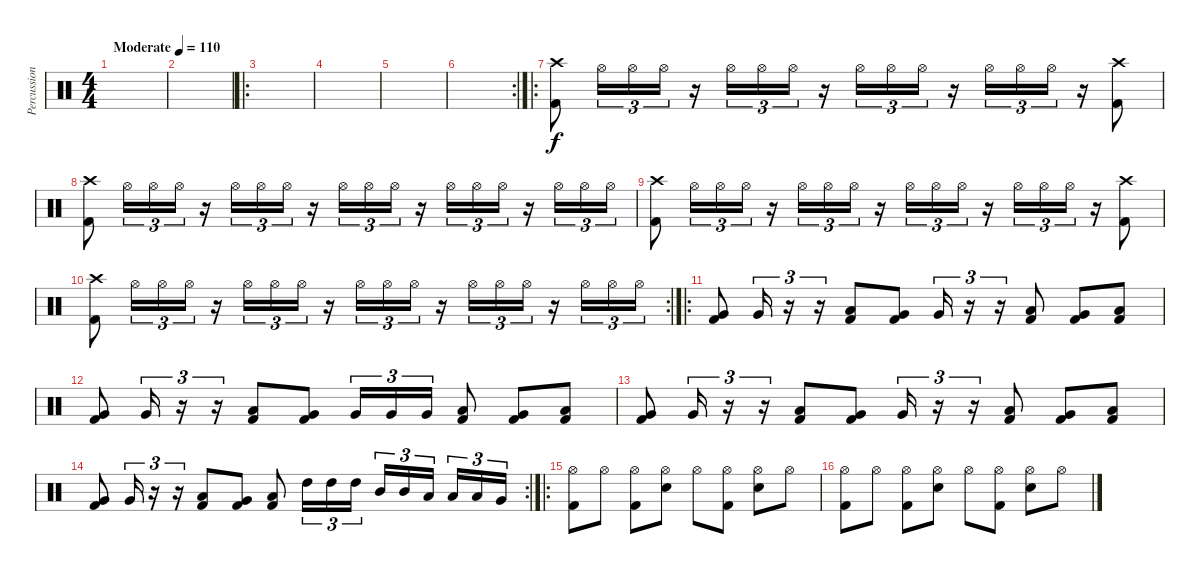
\track ("Percussion" "Percussion") {instrument percussion}
\staff {score}
\articulation defaults
\ts (4 4)
\tempo (110 "Moderate")
\clef neutral
\ks c
|
|
\ro
|
|
|
\rc 2
|
\ro
("Crash high (hit)" "Kick (hit) 2").8 "Hi-Hat (open)".16{tu (3 2)} "Hi-Hat (open)".16{tu (3 2)} "Hi-Hat (open)".16{tu (3 2)} r.16 "Hi-Hat (open)".16{tu (3 2)} "Hi-Hat (open)".16{tu (3 2)} "Hi-Hat (open)".16{tu (3 2)} r.16 "Hi-Hat (open)".16{tu (3 2)} "Hi-Hat (open)".16{tu (3 2)} "Hi-Hat (open)".16{tu (3 2)} r.16 "Hi-Hat (open)".16{tu (3 2)} "Hi-Hat (open)".16{tu (3 2)} "Hi-Hat (open)".16{tu (3 2)} r.16 ("Crash high (hit)" "Kick (hit) 2").8 |
("Crash high (hit)" "Kick (hit) 2").8 "Hi-Hat (open)".16{tu (3 2)} "Hi-Hat (open)".16{tu (3 2)} "Hi-Hat (open)".16{tu (3 2)} r.16 "Hi-Hat (open)".16{tu (3 2)} "Hi-Hat (open)".16{tu (3 2)} "Hi-Hat (open)".16{tu (3 2)} r.16 "Hi-Hat (open)".16{tu (3 2)} "Hi-Hat (open)".16{tu (3 2)} "Hi-Hat (open)".16{tu (3 2)} r.16 "Hi-Hat (open)".16{tu (3 2)} "Hi-Hat (open)".16{tu (3 2)} "Hi-Hat (open)".16{tu (3 2)} r.16 "Hi-Hat (open)".16{tu (3 2)} "Hi-Hat (open)".16{tu (3 2)} "Hi-Hat (open)".16{tu (3 2)} |
("Crash high (hit)" "Kick (hit) 2").8 "Hi-Hat (open)".16{tu (3 2)} "Hi-Hat (open)".16{tu (3 2)} "Hi-Hat (open)".16{tu (3 2)} r.16 "Hi-Hat (open)".16{tu (3 2)} "Hi-Hat (open)".16{tu (3 2)} "Hi-Hat (open)".16{tu (3 2)} r.16 "Hi-Hat (open)".16{tu (3 2)} "Hi-Hat (open)".16{tu (3 2)} "Hi-Hat (open)".16{tu (3 2)} r.16 "Hi-Hat (open)".16{tu (3 2)} "Hi-Hat (open)".16{tu (3 2)} "Hi-Hat (open)".16{tu (3 2)} r.16 ("Crash high (hit)" "Kick (hit) 2").8 |
\rc 2
("Crash high (hit)" "Kick (hit) 2").8 "Hi-Hat (open)".16{tu (3 2)} "Hi-Hat (open)".16{tu (3 2)} "Hi-Hat (open)".16{tu (3 2)} r.16 "Hi-Hat (open)".16{tu (3 2)} "Hi-Hat (open)".16{tu (3 2)} "Hi-Hat (open)".16{tu (3 2)} r.16 "Hi-Hat (open)".16{tu (3 2)} "Hi-Hat (open)".16{tu (3 2)} "Hi-Hat (open)".16{tu (3 2)} r.16 "Hi-Hat (open)".16{tu (3 2)} "Hi-Hat (open)".16{tu (3 2)} "Hi-Hat (open)".16{tu (3 2)} r.16 "Hi-Hat (open)".16{tu (3 2)} "Hi-Hat (open)".16{tu (3 2)} "Hi-Hat (open)".16{tu (3 2)} |
\ro
("Kick (hit) 2" "Very Low Tom (hit)").8 "Very Low Tom (hit)".16{tu (3 2)} r.16{tu (3 2)} r.16{tu (3 2)} ("Kick (hit) 2" "Low Tom (hit)").8 ("Kick (hit) 2" "Very Low Tom (hit)").8 "Very Low Tom (hit)".16{tu (3 2)} r.16{tu (3 2)} r.16{tu (3 2)} ("Kick (hit) 2" "Low Tom (hit)").8 ("Kick (hit) 2" "Very Low Tom (hit)").8 ("Kick (hit) 2" "Low Floor Tom (hit)").8 |
("Kick (hit) 2" "Very Low Tom (hit)").8 "Very Low Tom (hit)".16{tu (3 2)} r.16{tu (3 2)} r.16{tu (3 2)} ("Kick (hit) 2" "Low Tom (hit)").8 ("Kick (hit) 2" "Very Low Tom (hit)").8 "Very Low Tom (hit)".16{tu (3 2)} "Very Low Tom (hit)".16{tu (3 2)} "Very Low Tom (hit)".16{tu (3 2)} ("Kick (hit) 2" "Low Tom (hit)").8 ("Kick (hit) 2" "Very Low Tom (hit)").8 ("Kick (hit) 2" "Low Floor Tom (hit)").8 |
("Kick (hit) 2" "Very Low Tom (hit)").8 "Very Low Tom (hit)".16{tu (3 2)} r.16{tu (3 2)} r.16{tu (3 2)} ("Kick (hit) 2" "Low Tom (hit)").8 ("Kick (hit) 2" "Very Low Tom (hit)").8 "Very Low Tom (hit)".16{tu (3 2)} r.16{tu (3 2)} r.16{tu (3 2)} ("Kick (hit) 2" "Low Tom (hit)").8 ("Kick (hit) 2" "Very Low Tom (hit)").8 ("Kick (hit) 2" "Low Floor Tom (hit)").8 |
\rc 2
("Kick (hit) 2" "Very Low Tom (hit)").8 "Very Low Tom (hit)".16{tu (3 2)} r.16{tu (3 2)} r.16{tu (3 2)} ("Kick (hit) 2" "Low Tom (hit)").8 ("Kick (hit) 2" "Very Low Tom (hit)").8 ("Kick (hit) 2" "Low Floor Tom (hit)").8 "High Tom (hit)".16{tu (3 2)} "High Tom (hit)".16{tu (3 2)} "High Tom (hit)".16{tu (3 2)} "Mid Tom (hit)".16{tu (3 2)} "Mid Tom (hit)".16{tu (3 2)} "Low Tom (hit)".16{tu (3 2) beam splitsecondary} "Low Tom (hit)".16{tu (3 2)} "Low Tom (hit)".16{tu (3 2)} "Very Low Tom (hit)".16{tu (3 2)} |
\ro
("Hi-Hat (open)" "Kick (hit) 2").8 "Hi-Hat (open)".8 ("Hi-Hat (open)" "Kick (hit) 2").8 ("Hi-Hat (open)" "Snare (hit) 2").8 "Hi-Hat (open)".8 ("Hi-Hat (open)" "Kick (hit) 2").8 ("Hi-Hat (open)" "Snare (hit) 2").8 "Hi-Hat (open)".8 |
("Hi-Hat (open)" "Kick (hit) 2").8 "Hi-Hat (open)".8 ("Hi-Hat (open)" "Kick (hit) 2").8 ("Hi-Hat (open)" "Snare (hit) 2").8 "Hi-Hat (open)".8 ("Hi-Hat (open)" "Kick (hit) 2").8 ("Hi-Hat (open)" "Snare (hit) 2").8 "Hi-Hat (open)".8
